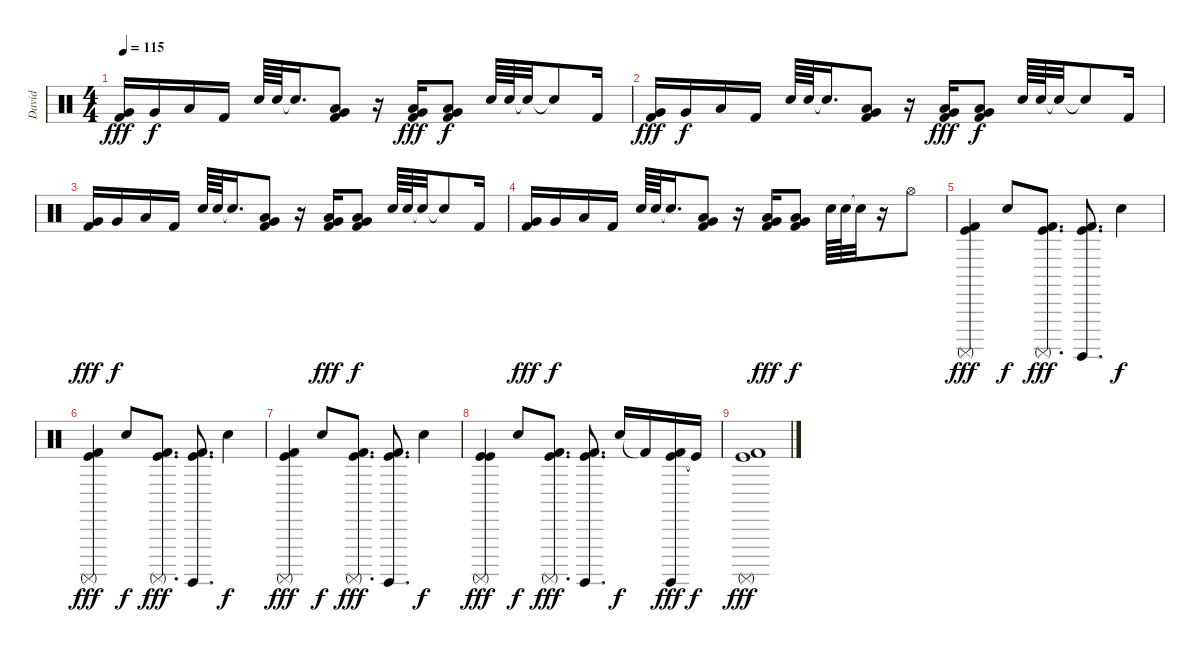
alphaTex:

\track ("David" "David") {instrument percussion}
\staff {score}
\articulation defaults
\ts (4 4)
\tempo 115
\clef neutral
\ks c
("Very Low Tom (hit)" "Kick (hit) 2").16{dy fff} "Very Low Tom (hit)".16{dy f} "Low Floor Tom (hit)".16 "Kick (hit) 2".16 "Snare (hit) 2".64 "Snare (hit) 2".64 "Snare (hit)"{t}.16{d} ("Low Tom (hit)" "Very Low Tom (hit)" "Kick (hit) 2").8 r.16 ("Very Low Tom (hit)" "Low Floor Tom (hit)" "Kick (hit) 2").16{dy fff} ("Very Low Tom (hit)" "Low Floor Tom (hit)" "Kick (hit) 2").8{dy f} "Snare (hit) 2".64 "Snare (hit) 2".64 "Snare (hit)"{t}.32 "Snare (hit)"{t}.8 "Kick (hit) 2".16 |
("Very Low Tom (hit)" "Kick (hit) 2").16{dy fff} "Very Low Tom (hit)".16{dy f} "Low Floor Tom (hit)".16 "Kick (hit) 2".16 "Snare (hit) 2".64 "Snare (hit) 2".64 "Snare (hit)"{t}.16{d} ("Low Tom (hit)" "Very Low Tom (hit)" "Kick (hit) 2").8 r.16 ("Very Low Tom (hit)" "Low Floor Tom (hit)" "Kick (hit) 2").16{dy fff} ("Very Low Tom (hit)" "Low Floor Tom (hit)" "Kick (hit) 2").8{dy f} "Snare (hit) 2".64 "Snare (hit) 2".64 "Snare (hit)"{t}.32 "Snare (hit)"{t}.8 "Kick (hit) 2".16 |
("Very Low Tom (hit)" "Kick (hit) 2").16{dy fff} "Very Low Tom (hit)".16{dy f} "Low Floor Tom (hit)".16 "Kick (hit) 2".16 "Snare (hit) 2".64 "Snare (hit) 2".64 "Snare (hit)"{t}.16{d} ("Low Tom (hit)" "Very Low Tom (hit)" "Kick (hit) 2").8 r.16 ("Very Low Tom (hit)" "Low Floor Tom (hit)" "Kick (hit) 2").16{dy fff} ("Very Low Tom (hit)" "Low Floor Tom (hit)" "Kick (hit) 2").8{dy f} "Snare (hit) 2".64 "Snare (hit) 2".64 "Snare (hit)"{t}.32 "Snare (hit)"{t}.8 "Kick (hit) 2".16 |
("Very Low Tom (hit)" "Kick (hit) 2").16{dy fff} "Very Low Tom (hit)".16{dy f} "Low Floor Tom (hit)".16 "Kick (hit) 2".16 "Snare (hit) 2".64 "Snare (hit) 2".64 "Snare (hit)"{t}.16{d} ("Low Tom (hit)" "Very Low Tom (hit)" "Kick (hit) 2").8 r.16 ("Very Low Tom (hit)" "Low Floor Tom (hit)" "Kick (hit) 2").16{dy fff} ("Very Low Tom (hit)" "Low Floor Tom (hit)" "Kick (hit) 2").8{dy f} "Snare (hit) 2".64 "Snare (hit) 2".64 "Snare (hit)"{t}.32 r.16 "Hi-Hat (open)".8 |
("Kick (hit) 2" "Surdo (mute)" "Kick (hit)").4{dy fff volume 16} "Snare (hit) 2".8{dy f} ("Kick (hit)" "Surdo (mute)" "Kick (hit) 2").8{d dy fff} ("Kick (hit) 2" "Surdo (hit)" "Kick (hit)").8{d} "Snare (hit) 2".4{dy f} |
("Kick (hit) 2" "Surdo (mute)" "Kick (hit)").4{dy fff volume 16} "Snare (hit) 2".8{dy f} ("Kick (hit)" "Surdo (mute)" "Kick (hit) 2").8{d dy fff} ("Kick (hit) 2" "Surdo (hit)" "Kick (hit)").8{d} "Snare (hit) 2".4{dy f} |
("Kick (hit) 2" "Surdo (mute)" "Kick (hit)").4{dy fff volume 16} "Snare (hit) 2".8{dy f} ("Kick (hit)" "Surdo (mute)" "Kick (hit) 2").8{d dy fff} ("Kick (hit) 2" "Surdo (hit)" "Kick (hit)").8{d} "Snare (hit) 2".4{dy f} |
("Kick (hit)" "Surdo (mute)" "Kick (hit)").4{dy fff} "Snare (hit) 2".8{dy f} ("Kick (hit)" "Surdo (mute)" "Kick (hit) 2").8{d dy fff} ("Kick (hit) 2" "Surdo (hit)" "Kick (hit)").8{d} "Snare (hit) 2".16{dy f} "Kick (hit) 2"{t}.16 ("Kick (hit)" "Surdo (hit)" "Kick (hit) 2").16{dy fff} "Kick (hit)"{t}.16{dy f} |
("Kick (hit) 2" "Surdo (mute)" "Kick (hit)").1{dy fff}
